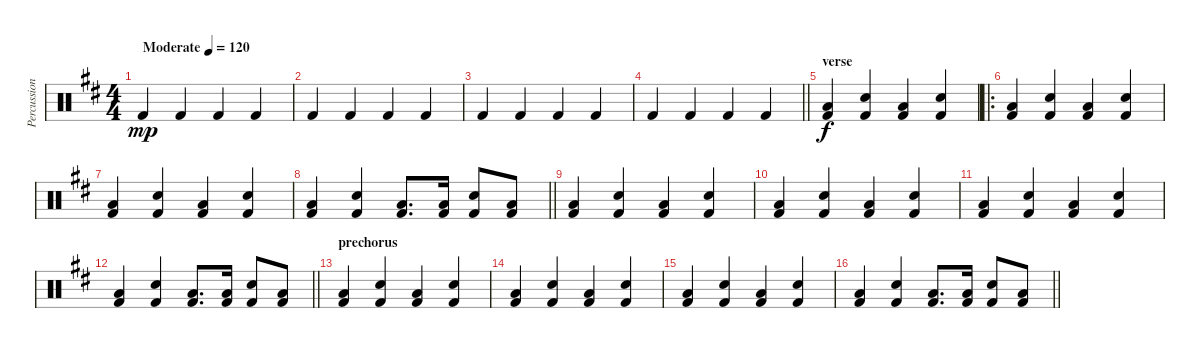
\track ("Percussion" "Percussion") {instrument percussion}
\staff {score}
\articulation defaults
\ts (4 4)
\tempo (120 "Moderate")
\clef neutral
\ks bminor "Kick (hit) 2".4{dy mp} "Kick (hit) 2".4 "Kick (hit) 2".4 "Kick (hit) 2".4
|
"Kick (hit) 2".4 "Kick (hit) 2".4 "Kick (hit) 2".4 "Kick (hit) 2".4 |
"Kick (hit) 2".4 "Kick (hit) 2".4 "Kick (hit) 2".4 "Kick (hit) 2".4 |
\barLineRight lightlight "Kick (hit) 2".4 "Kick (hit) 2".4 "Kick (hit) 2".4 "Kick (hit) 2".4
|
\section ("" "verse")
("Kick (hit) 2" "Low Floor Tom (hit)").4{dy f} ("Kick (hit) 2" "Snare (hit) 2").4 ("Kick (hit) 2" "Low Floor Tom (hit)").4 ("Kick (hit) 2" "Snare (hit) 2").4 |
\ro
("Kick (hit) 2" "Low Floor Tom (hit)").4 ("Kick (hit) 2" "Snare (hit) 2").4 ("Kick (hit) 2" "Low Floor Tom (hit)").4 ("Kick (hit) 2" "Snare (hit) 2").4 |
("Kick (hit) 2" "Low Floor Tom (hit)").4 ("Kick (hit) 2" "Snare (hit) 2").4 ("Kick (hit) 2" "Low Floor Tom (hit)").4 ("Kick (hit) 2" "Snare (hit) 2").4 |
\barLineRight lightlight
("Kick (hit) 2" "Low Floor Tom (hit)").4 ("Kick (hit) 2" "Snare (hit) 2").4 ("Kick (hit) 2" "Low Floor Tom (hit)").8{d} ("Kick (hit) 2" "Low Floor Tom (hit)").16 ("Kick (hit) 2" "Snare (hit) 2").8 ("Kick (hit) 2" "Low Floor Tom (hit)").8 |
("Kick (hit) 2" "Low Floor Tom (hit)").4 ("Kick (hit) 2" "Snare (hit) 2").4 ("Kick (hit) 2" "Low Floor Tom (hit)").4 ("Kick (hit) 2" "Snare (hit) 2").4 |
("Kick (hit) 2" "Low Floor Tom (hit)").4 ("Kick (hit) 2" "Snare (hit) 2").4 ("Kick (hit) 2" "Low Floor Tom (hit)").4 ("Kick (hit) 2" "Snare (hit) 2").4 |
("Kick (hit) 2" "Low Floor Tom (hit)").4 ("Kick (hit) 2" "Snare (hit) 2").4 ("Kick (hit) 2" "Low Floor Tom (hit)").4 ("Kick (hit) 2" "Snare (hit) 2").4 |
\barLineRight lightlight
("Kick (hit) 2" "Low Floor Tom (hit)").4 ("Kick (hit) 2" "Snare (hit) 2").4 ("Kick (hit) 2" "Low Floor Tom (hit)").8{d} ("Kick (hit) 2" "Low Floor Tom (hit)").16 ("Kick (hit) 2" "Snare (hit) 2").8 ("Kick (hit) 2" "Low Floor Tom (hit)").8 |
\section ("" "prechorus")
("Kick (hit) 2" "Low Floor Tom (hit)").4 ("Kick (hit) 2" "Snare (hit) 2").4 ("Kick (hit) 2" "Low Floor Tom (hit)").4 ("Kick (hit) 2" "Snare (hit) 2").4 |
("Kick (hit) 2" "Low Floor Tom (hit)").4 ("Kick (hit) 2" "Snare (hit) 2").4 ("Kick (hit) 2" "Low Floor Tom (hit)").4 ("Kick (hit) 2" "Snare (hit) 2").4 |
("Kick (hit) 2" "Low Floor Tom (hit)").4 ("Kick (hit) 2" "Snare (hit) 2").4 ("Kick (hit) 2" "Low Floor Tom (hit)").4 ("Kick (hit) 2" "Snare (hit) 2").4 |
\barLineRight lightlight
("Kick (hit) 2" "Low Floor Tom (hit)").4 ("Kick (hit) 2" "Snare (hit) 2").4 ("Kick (hit) 2" "Low Floor Tom (hit)").8{d} ("Kick (hit) 2" "Low Floor Tom (hit)").16 ("Kick (hit) 2" "Snare (hit) 2").8 ("Kick (hit) 2" "Low Floor Tom (hit)").8
